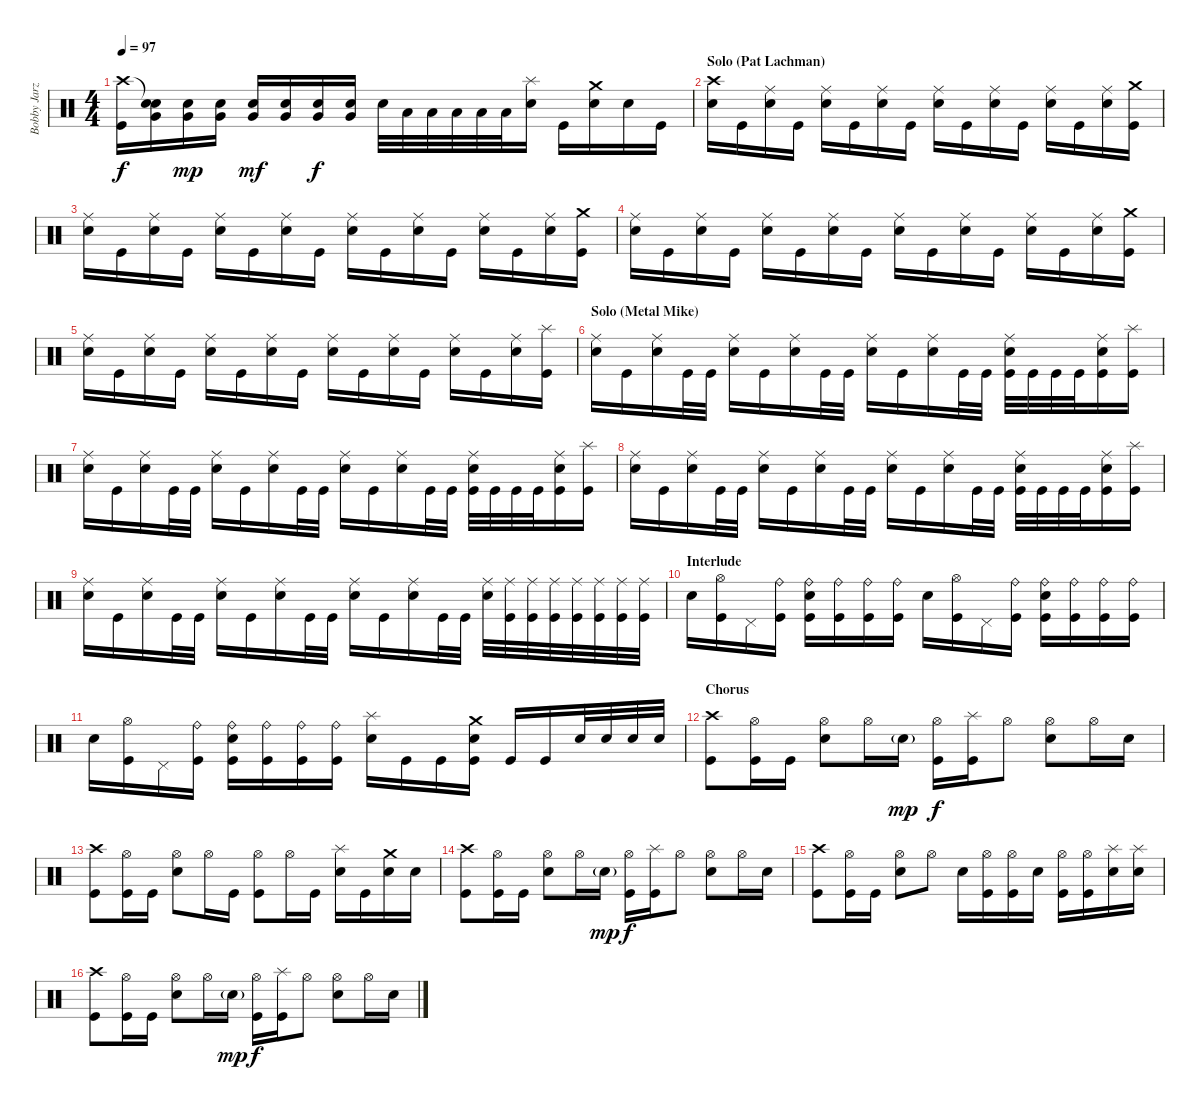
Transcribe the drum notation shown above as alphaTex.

\track ("Bobby Jarzombek" "Bobby Jarz") {instrument percussion}
\staff {score}
\articulation defaults
\ts (4 4)
\tempo 97
\clef neutral
\ks c
("Crash high (hit)"{t} "Kick (hit)"{t}).16{dy f volume 0} ("Snare (hit)"{t} "Very Low Tom (hit)" "Electric Snare (hit)").16{volume 13} ("Very Low Tom (hit)" "Electric Snare (hit)").16{dy mp} ("Very Low Tom (hit)" "Electric Snare (hit)").16 ("Very Low Tom (hit)" "Electric Snare (hit)").16{dy mf} ("Very Low Tom (hit)" "Electric Snare (hit)").16 ("Very Low Tom (hit)" "Electric Snare (hit)").16{dy f} ("Very Low Tom (hit)" "Electric Snare (hit)").16 "Electric Snare (hit)".32 "Low Tom (hit)".32 "Low Tom (hit)".32 "Low Tom (hit)".32 "Low Tom (hit)".32 "Low Tom (hit)".32 ("Splash (hit)" "Electric Snare (hit)").16 "Kick (hit)".16 ("Crash medium (hit)" "Electric Snare (hit)").16 "Electric Snare (hit)".16 "Kick (hit)".16 |
\section ("" "Solo (Pat Lachman)")
("Crash high (hit)" "Electric Snare (hit)").16 "Kick (hit)".16 ("Ride (middle)" "Electric Snare (hit)").16 "Kick (hit)".16 ("Ride (middle)" "Electric Snare (hit)").16 "Kick (hit)".16 ("Ride (middle)" "Electric Snare (hit)").16 "Kick (hit)".16 ("Ride (middle)" "Electric Snare (hit)").16 "Kick (hit)".16 ("Ride (middle)" "Electric Snare (hit)").16 "Kick (hit)".16 ("Ride (middle)" "Electric Snare (hit)").16 "Kick (hit)".16 ("Ride (middle)" "Electric Snare (hit)").16 ("Crash medium (hit)" "Kick (hit)").16 |
("Ride (middle)" "Electric Snare (hit)").16 "Kick (hit)".16 ("Ride (middle)" "Electric Snare (hit)").16 "Kick (hit)".16 ("Ride (middle)" "Electric Snare (hit)").16 "Kick (hit)".16 ("Ride (middle)" "Electric Snare (hit)").16 "Kick (hit)".16 ("Ride (middle)" "Electric Snare (hit)").16 "Kick (hit)".16 ("Ride (middle)" "Electric Snare (hit)").16 "Kick (hit)".16 ("Ride (middle)" "Electric Snare (hit)").16 "Kick (hit)".16 ("Ride (middle)" "Electric Snare (hit)").16 ("Crash medium (hit)" "Kick (hit)").16 |
("Ride (middle)" "Electric Snare (hit)").16 "Kick (hit)".16 ("Ride (middle)" "Electric Snare (hit)").16 "Kick (hit)".16 ("Ride (middle)" "Electric Snare (hit)").16 "Kick (hit)".16 ("Ride (middle)" "Electric Snare (hit)").16 "Kick (hit)".16 ("Ride (middle)" "Electric Snare (hit)").16 "Kick (hit)".16 ("Ride (middle)" "Electric Snare (hit)").16 "Kick (hit)".16 ("Ride (middle)" "Electric Snare (hit)").16 "Kick (hit)".16 ("Ride (middle)" "Electric Snare (hit)").16 ("Crash medium (hit)" "Kick (hit)").16 |
("Ride (middle)" "Electric Snare (hit)").16 "Kick (hit)".16 ("Ride (middle)" "Electric Snare (hit)").16 "Kick (hit)".16 ("Ride (middle)" "Electric Snare (hit)").16 "Kick (hit)".16 ("Ride (middle)" "Electric Snare (hit)").16 "Kick (hit)".16 ("Ride (middle)" "Electric Snare (hit)").16 "Kick (hit)".16 ("Ride (middle)" "Electric Snare (hit)").16 "Kick (hit)".16 ("Ride (middle)" "Electric Snare (hit)").16 "Kick (hit)".16 ("Ride (middle)" "Electric Snare (hit)").16 ("Splash (hit)" "Kick (hit)").16 |
\section ("" "Solo (Metal Mike)")
("Ride (middle)" "Electric Snare (hit)").16 "Kick (hit)".16 ("Ride (middle)" "Electric Snare (hit)").16 "Kick (hit)".32 "Kick (hit)".32 ("Ride (middle)" "Electric Snare (hit)").16 "Kick (hit)".16 ("Ride (middle)" "Electric Snare (hit)").16 "Kick (hit)".32 "Kick (hit)".32 ("Ride (middle)" "Electric Snare (hit)").16 "Kick (hit)".16 ("Ride (middle)" "Electric Snare (hit)").16 "Kick (hit)".32 "Kick (hit)".32 ("Ride (middle)" "Electric Snare (hit)" "Kick (hit)").32 "Kick (hit)".32 "Kick (hit)".32 "Kick (hit)".32 ("Ride (middle)" "Electric Snare (hit)" "Kick (hit)").16 ("Splash (hit)" "Kick (hit)").16 |
("Ride (middle)" "Electric Snare (hit)").16 "Kick (hit)".16 ("Ride (middle)" "Electric Snare (hit)").16 "Kick (hit)".32 "Kick (hit)".32 ("Ride (middle)" "Electric Snare (hit)").16 "Kick (hit)".16 ("Ride (middle)" "Electric Snare (hit)").16 "Kick (hit)".32 "Kick (hit)".32 ("Ride (middle)" "Electric Snare (hit)").16 "Kick (hit)".16 ("Ride (middle)" "Electric Snare (hit)").16 "Kick (hit)".32 "Kick (hit)".32 ("Ride (middle)" "Electric Snare (hit)" "Kick (hit)").32 "Kick (hit)".32 "Kick (hit)".32 "Kick (hit)".32 ("Ride (middle)" "Electric Snare (hit)" "Kick (hit)").16 ("Splash (hit)" "Kick (hit)").16 |
("Ride (middle)" "Electric Snare (hit)").16 "Kick (hit)".16 ("Ride (middle)" "Electric Snare (hit)").16 "Kick (hit)".32 "Kick (hit)".32 ("Ride (middle)" "Electric Snare (hit)").16 "Kick (hit)".16 ("Ride (middle)" "Electric Snare (hit)").16 "Kick (hit)".32 "Kick (hit)".32 ("Ride (middle)" "Electric Snare (hit)").16 "Kick (hit)".16 ("Ride (middle)" "Electric Snare (hit)").16 "Kick (hit)".32 "Kick (hit)".32 ("Ride (middle)" "Electric Snare (hit)" "Kick (hit)").32 "Kick (hit)".32 "Kick (hit)".32 "Kick (hit)".32 ("Ride (middle)" "Electric Snare (hit)" "Kick (hit)").16 ("Splash (hit)" "Kick (hit)").16 |
("Ride (middle)" "Electric Snare (hit)").16 "Kick (hit)".16 ("Ride (middle)" "Electric Snare (hit)").16 "Kick (hit)".32 "Kick (hit)".32 ("Ride (middle)" "Electric Snare (hit)").16 "Kick (hit)".16 ("Ride (middle)" "Electric Snare (hit)").16 "Kick (hit)".32 "Kick (hit)".32 ("Ride (middle)" "Electric Snare (hit)").16 "Kick (hit)".16 ("Ride (middle)" "Electric Snare (hit)").16 "Kick (hit)".32 "Kick (hit)".32 ("Ride (middle)" "Electric Snare (hit)").32 ("Ride (middle)" "Kick (hit)").32 ("Ride (middle)" "Kick (hit)").32 ("Ride (middle)" "Kick (hit)").32 ("Ride (middle)" "Kick (hit)").32 ("Ride (middle)" "Kick (hit)").32 ("Ride (middle)" "Kick (hit)").32 ("Ride (middle)" "Kick (hit)").32 |
\section ("" "Interlude")
"Electric Snare (hit)".16 ("Hi-Hat (open)" "Kick (hit)").16 "Pedal Hi-Hat (hit)".16 ("Ride (bell)" "Kick (hit)").16 ("Ride (bell)" "Electric Snare (hit)" "Kick (hit)").16 ("Ride (bell)" "Kick (hit)").16 ("Ride (bell)" "Kick (hit)").16 ("Ride (bell)" "Kick (hit)").16 "Electric Snare (hit)".16 ("Hi-Hat (open)" "Kick (hit)").16 "Pedal Hi-Hat (hit)".16 ("Ride (bell)" "Kick (hit)").16 ("Ride (bell)" "Electric Snare (hit)" "Kick (hit)").16 ("Ride (bell)" "Kick (hit)").16 ("Ride (bell)" "Kick (hit)").16 ("Ride (bell)" "Kick (hit)").16 |
"Electric Snare (hit)".16 ("Hi-Hat (open)" "Kick (hit)").16 "Pedal Hi-Hat (hit)".16 ("Ride (bell)" "Kick (hit)").16 ("Ride (bell)" "Electric Snare (hit)" "Kick (hit)").16 ("Ride (bell)" "Kick (hit)").16 ("Ride (bell)" "Kick (hit)").16 ("Ride (bell)" "Kick (hit)").16 ("Splash (hit)" "Electric Snare (hit)").16 "Kick (hit)".16 "Kick (hit)".16 ("Crash medium (hit)" "Electric Snare (hit)" "Kick (hit)").16 "Kick (hit)".16 "Kick (hit)".16 "Electric Snare (hit)".32 "Electric Snare (hit)".32 "Electric Snare (hit)".32 "Electric Snare (hit)".32 |
\section ("" "Chorus")
("Crash high (hit)" "Kick (hit)").8 ("Hi-Hat (open)" "Kick (hit)").16 "Kick (hit)".16 ("Hi-Hat (open)" "Electric Snare (hit)").8 "Hi-Hat (open)".16 "Electric Snare (hit)"{g}.16{dy mp} ("Hi-Hat (open)" "Kick (hit)").16{dy f} ("Splash (hit)" "Kick (hit)").16 "Hi-Hat (open)".8 ("Hi-Hat (open)" "Electric Snare (hit)").8 "Hi-Hat (open)".16 "Electric Snare (hit)".16 |
("Crash high (hit)" "Kick (hit)").8 ("Hi-Hat (open)" "Kick (hit)").16 "Kick (hit)".16 ("Hi-Hat (open)" "Electric Snare (hit)").8 "Hi-Hat (open)".16 "Kick (hit)".16 ("Hi-Hat (open)" "Kick (hit)").8 "Hi-Hat (open)".16 "Kick (hit)".16 ("Splash (hit)" "Electric Snare (hit)").16 "Kick (hit)".16 ("Crash medium (hit)" "Electric Snare (hit)").16 "Electric Snare (hit)".16 |
("Crash high (hit)" "Kick (hit)").8 ("Hi-Hat (open)" "Kick (hit)").16 "Kick (hit)".16 ("Hi-Hat (open)" "Electric Snare (hit)").8 "Hi-Hat (open)".16 "Electric Snare (hit)"{g}.16{dy mp} ("Hi-Hat (open)" "Kick (hit)").16{dy f} ("Splash (hit)" "Kick (hit)").16 "Hi-Hat (open)".8 ("Hi-Hat (open)" "Electric Snare (hit)").8 "Hi-Hat (open)".16 "Electric Snare (hit)".16 |
("Crash high (hit)" "Kick (hit)").8 ("Hi-Hat (open)" "Kick (hit)").16 "Kick (hit)".16 ("Hi-Hat (open)" "Electric Snare (hit)").8 "Hi-Hat (open)".8 "Electric Snare (hit)".16 ("Hi-Hat (open)" "Kick (hit)").16 ("Hi-Hat (open)" "Kick (hit)").16 "Electric Snare (hit)".16 ("Hi-Hat (open)" "Kick (hit)").16 ("Hi-Hat (open)" "Kick (hit)").16 ("Splash (hit)" "Electric Snare (hit)").16 ("Splash (hit)" "Electric Snare (hit)").16 |
("Crash high (hit)" "Kick (hit)").8 ("Hi-Hat (open)" "Kick (hit)").16 "Kick (hit)".16 ("Hi-Hat (open)" "Electric Snare (hit)").8 "Hi-Hat (open)".16 "Electric Snare (hit)"{g}.16{dy mp} ("Hi-Hat (open)" "Kick (hit)").16{dy f} ("Splash (hit)" "Kick (hit)").16 "Hi-Hat (open)".8 ("Hi-Hat (open)" "Electric Snare (hit)").8 "Hi-Hat (open)".16 "Electric Snare (hit)".16
